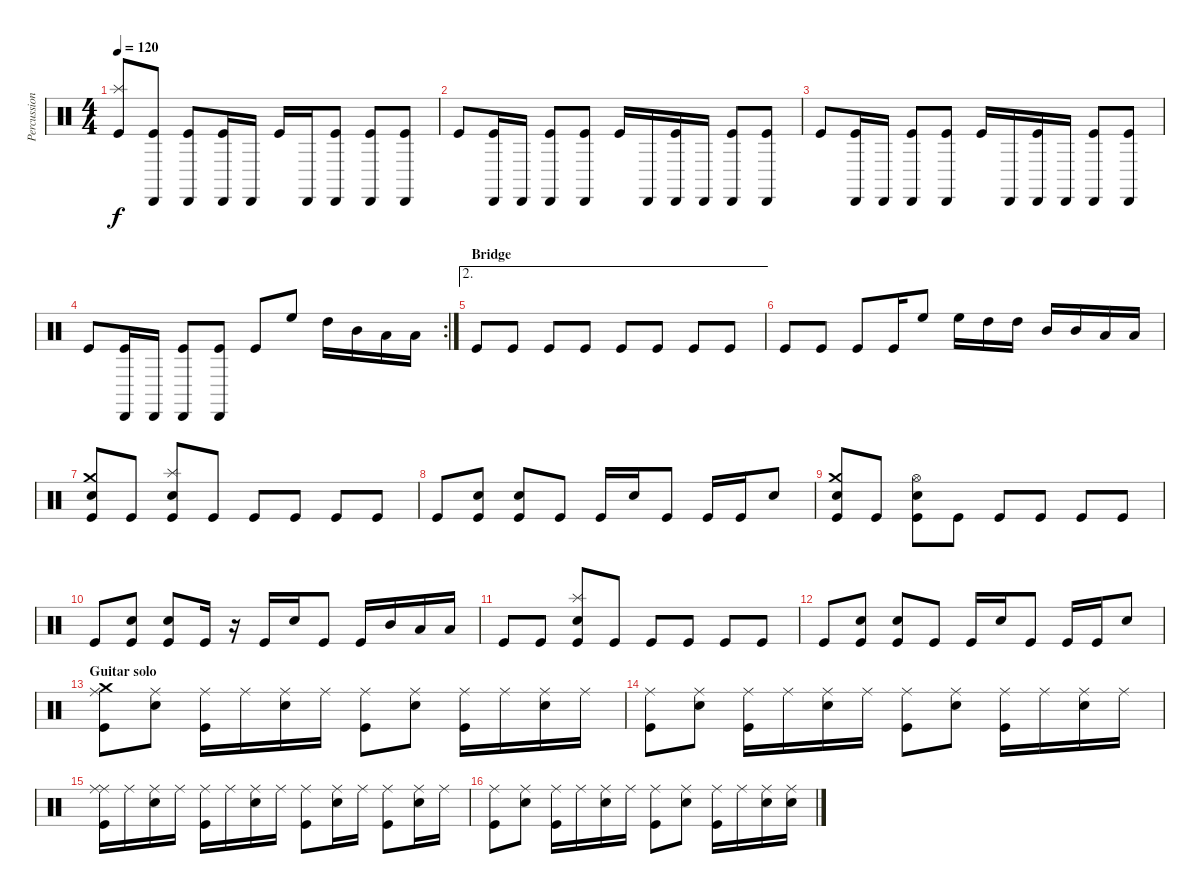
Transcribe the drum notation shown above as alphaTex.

\track ("Percussion" "Percussion") {instrument percussion}
\staff {score}
\articulation defaults
\ts (4 4)
\tempo 120
\clef neutral
\ks c
("Kick (hit)" "Splash (hit)").8{dy f} ("Kick (hit)" "Cabasa (hit)").8 ("Kick (hit)" "Cabasa (hit)").8 ("Kick (hit)" "Cabasa (hit)").16 "Cabasa (hit)".16 "Kick (hit)".16 "Cabasa (hit)".16 ("Kick (hit)" "Cabasa (hit)").8 ("Kick (hit)" "Cabasa (hit)").8 ("Kick (hit)" "Cabasa (hit)").8 |
"Kick (hit)".8 ("Kick (hit)" "Cabasa (hit)").16 "Cabasa (hit)".16 ("Kick (hit)" "Cabasa (hit)").8 ("Kick (hit)" "Cabasa (hit)").8 "Kick (hit)".16 "Cabasa (hit)".16 ("Kick (hit)" "Cabasa (hit)").16 "Cabasa (hit)".16 ("Kick (hit)" "Cabasa (hit)").8 ("Kick (hit)" "Cabasa (hit)").8 |
"Kick (hit)".8 ("Kick (hit)" "Cabasa (hit)").16 "Cabasa (hit)".16 ("Kick (hit)" "Cabasa (hit)").8 ("Kick (hit)" "Cabasa (hit)").8 "Kick (hit)".16 "Cabasa (hit)".16 ("Kick (hit)" "Cabasa (hit)").16 "Cabasa (hit)".16 ("Kick (hit)" "Cabasa (hit)").8 ("Kick (hit)" "Cabasa (hit)").8 |
\rc 2 "Kick (hit)".8
("Kick (hit)" "Cabasa (hit)").16 "Cabasa (hit)".16 ("Kick (hit)" "Cabasa (hit)").8 ("Kick (hit)" "Cabasa (hit)").8 "Kick (hit)".8 "High Floor Tom (hit)".8 "High Tom (hit)".16 "Mid Tom (hit)".16 "Low Tom (hit)".16 "Low Tom (hit)".16 |
\ae 2
\section ("" "Bridge")
"Kick (hit)".8 "Kick (hit)".8 "Kick (hit)".8 "Kick (hit)".8 "Kick (hit)".8 "Kick (hit)".8 "Kick (hit)".8 "Kick (hit)".8 |
"Kick (hit)".8 "Kick (hit)".8 "Kick (hit)".8 "Kick (hit)".16 "High Floor Tom (hit)".8 "High Floor Tom (hit)".16 "High Tom (hit)".16 "High Tom (hit)".16 "Mid Tom (hit)".16 "Mid Tom (hit)".16 "Low Tom (hit)".16 "Low Tom (hit)".16 |
("Kick (hit)" "Crash medium (hit)" "Snare (hit) 2").8 "Kick (hit)".8 ("Kick (hit)" "Splash (hit)" "Snare (hit) 2").8 "Kick (hit)".8 "Kick (hit)".8 "Kick (hit)".8 "Kick (hit)".8 "Kick (hit)".8 |
"Kick (hit)".8 ("Kick (hit)" "Snare (hit) 2").8 ("Kick (hit)" "Snare (hit) 2").8 "Kick (hit)".8 "Kick (hit)".16 "Snare (hit) 2".16 "Kick (hit)".8 "Kick (hit)".16 "Kick (hit)".16 "Snare (hit) 2".8 |
("Kick (hit)" "Crash medium (hit)" "Snare (hit) 2").8 "Kick (hit)".8 ("Hi-Hat (open)" "Kick (hit)" "Snare (hit) 2").8 "Kick (hit)".8 "Kick (hit)".8 "Kick (hit)".8 "Kick (hit)".8 "Kick (hit)".8 |
"Kick (hit)".8 ("Kick (hit)" "Snare (hit) 2").8 ("Kick (hit)" "Snare (hit) 2").8 "Kick (hit)".16 r.16 "Kick (hit)".16 "Snare (hit) 2".16 "Kick (hit)".8 "Kick (hit)".16 "Mid Tom (hit)".16 "Low Tom (hit)".16 "Low Tom (hit)".16 |
"Kick (hit)".8 "Kick (hit)".8 ("Kick (hit)" "Splash (hit)" "Snare (hit) 2").8 "Kick (hit)".8 "Kick (hit)".8 "Kick (hit)".8 "Kick (hit)".8 "Kick (hit)".8 |
"Kick (hit)".8 ("Kick (hit)" "Snare (hit) 2").8 ("Kick (hit)" "Snare (hit) 2").8 "Kick (hit)".8 "Kick (hit)".16 "Snare (hit) 2".16 "Kick (hit)".8 "Kick (hit)".16 "Kick (hit)".16 "Snare (hit) 2".8 |
\section ("" "Guitar solo")
("Kick (hit)" "Crash medium (hit)" "Ride (middle)").8 ("Snare (hit) 2" "Ride (middle)").8 ("Kick (hit)" "Ride (middle)").16 "Ride (middle)".16 ("Snare (hit) 2" "Ride (middle)").16 "Ride (middle)".16 ("Kick (hit)" "Ride (middle)").8 ("Snare (hit) 2" "Ride (middle)").8 ("Kick (hit)" "Ride (middle)").16 "Ride (middle)".16 ("Snare (hit) 2" "Ride (middle)").16 "Ride (middle)".16 |
("Kick (hit)" "Ride (middle)").8 ("Snare (hit) 2" "Ride (middle)").8 ("Kick (hit)" "Ride (middle)").16 "Ride (middle)".16 ("Snare (hit) 2" "Ride (middle)").16 "Ride (middle)".16 ("Kick (hit)" "Ride (middle)").8 ("Snare (hit) 2" "Ride (middle)").8 ("Kick (hit)" "Ride (middle)").16 "Ride (middle)".16 ("Snare (hit) 2" "Ride (middle)").16 "Ride (middle)".16 |
("Kick (hit)" "Ride (middle)" "Ride (middle)").16 "Ride (middle)".16 ("Snare (hit) 2" "Ride (middle)").16 "Ride (middle)".16 ("Kick (hit)" "Ride (middle)").16 "Ride (middle)".16 ("Snare (hit) 2" "Ride (middle)").16 "Ride (middle)".16 ("Kick (hit)" "Ride (middle)").8 ("Snare (hit) 2" "Ride (middle)").16 "Ride (middle)".16 ("Kick (hit)" "Ride (middle)").8 ("Snare (hit) 2" "Ride (middle)").16 "Ride (middle)".16 |
("Kick (hit)" "Ride (middle)").8 ("Snare (hit) 2" "Ride (middle)").8 ("Kick (hit)" "Ride (middle)").16 "Ride (middle)".16 ("Snare (hit) 2" "Ride (middle)").16 "Ride (middle)".16 ("Kick (hit)" "Ride (middle)").8 ("Snare (hit) 2" "Ride (middle)").8 ("Kick (hit)" "Ride (middle)").16 "Ride (middle)".16 ("Snare (hit) 2" "Ride (middle)").16 ("Snare (hit) 2" "Ride (middle)").16
